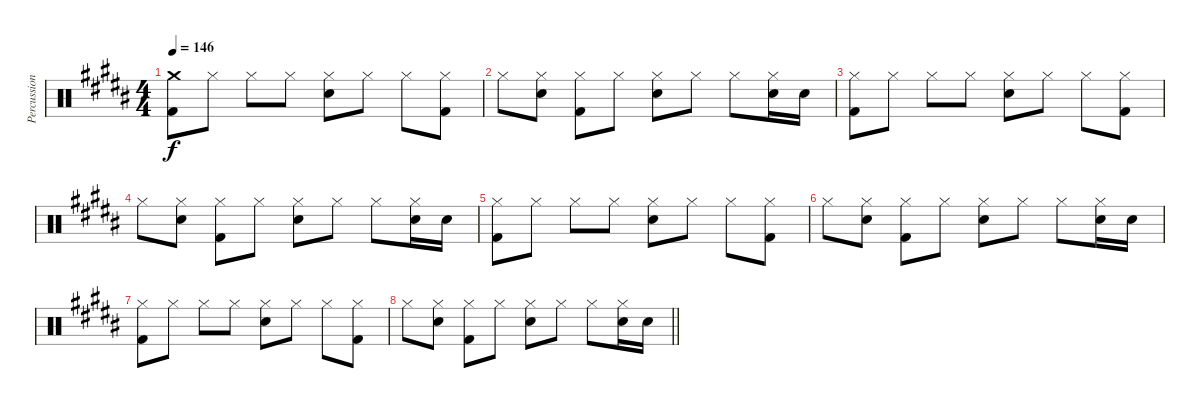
\track ("Percussion" "Percussion") {instrument percussion}
\staff {score}
\articulation defaults
\ts (4 4)
\tempo 146
\clef neutral
\ks b
("Crash medium (hit)" "Kick (hit) 2").8{dy f} "Hi-Hat (closed)".8 "Hi-Hat (closed)".8 "Hi-Hat (closed)".8 ("Hi-Hat (closed)" "Snare (hit) 2").8 "Hi-Hat (closed)".8 "Hi-Hat (closed)".8 ("Hi-Hat (closed)" "Kick (hit) 2").8 |
"Hi-Hat (closed)".8 ("Hi-Hat (closed)" "Snare (hit) 2").8 ("Hi-Hat (closed)" "Kick (hit) 2").8 "Hi-Hat (closed)".8 ("Hi-Hat (closed)" "Snare (hit) 2").8 "Hi-Hat (closed)".8 "Hi-Hat (closed)".8 ("Hi-Hat (closed)" "Snare (hit) 2").16 "Snare (hit) 2".16 |
("Hi-Hat (closed)" "Kick (hit) 2").8 "Hi-Hat (closed)".8 "Hi-Hat (closed)".8 "Hi-Hat (closed)".8 ("Hi-Hat (closed)" "Snare (hit) 2").8 "Hi-Hat (closed)".8 "Hi-Hat (closed)".8 ("Hi-Hat (closed)" "Kick (hit) 2").8 |
"Hi-Hat (closed)".8 ("Hi-Hat (closed)" "Snare (hit) 2").8 ("Hi-Hat (closed)" "Kick (hit) 2").8 "Hi-Hat (closed)".8 ("Hi-Hat (closed)" "Snare (hit) 2").8 "Hi-Hat (closed)".8 "Hi-Hat (closed)".8 ("Hi-Hat (closed)" "Snare (hit) 2").16 "Snare (hit) 2".16 |
("Hi-Hat (closed)" "Kick (hit) 2").8 "Hi-Hat (closed)".8 "Hi-Hat (closed)".8 "Hi-Hat (closed)".8 ("Hi-Hat (closed)" "Snare (hit) 2").8 "Hi-Hat (closed)".8 "Hi-Hat (closed)".8 ("Hi-Hat (closed)" "Kick (hit) 2").8 |
"Hi-Hat (closed)".8 ("Hi-Hat (closed)" "Snare (hit) 2").8 ("Hi-Hat (closed)" "Kick (hit) 2").8 "Hi-Hat (closed)".8 ("Hi-Hat (closed)" "Snare (hit) 2").8 "Hi-Hat (closed)".8 "Hi-Hat (closed)".8 ("Hi-Hat (closed)" "Snare (hit) 2").16 "Snare (hit) 2".16 |
("Hi-Hat (closed)" "Kick (hit) 2").8 "Hi-Hat (closed)".8 "Hi-Hat (closed)".8 "Hi-Hat (closed)".8 ("Hi-Hat (closed)" "Snare (hit) 2").8 "Hi-Hat (closed)".8 "Hi-Hat (closed)".8 ("Hi-Hat (closed)" "Kick (hit) 2").8 |
\barLineRight lightlight "Hi-Hat (closed)".8
("Hi-Hat (closed)" "Snare (hit) 2").8 ("Hi-Hat (closed)" "Kick (hit) 2").8 "Hi-Hat (closed)".8 ("Hi-Hat (closed)" "Snare (hit) 2").8 "Hi-Hat (closed)".8 "Hi-Hat (closed)".8 ("Hi-Hat (closed)" "Snare (hit) 2").16 "Snare (hit) 2".16
